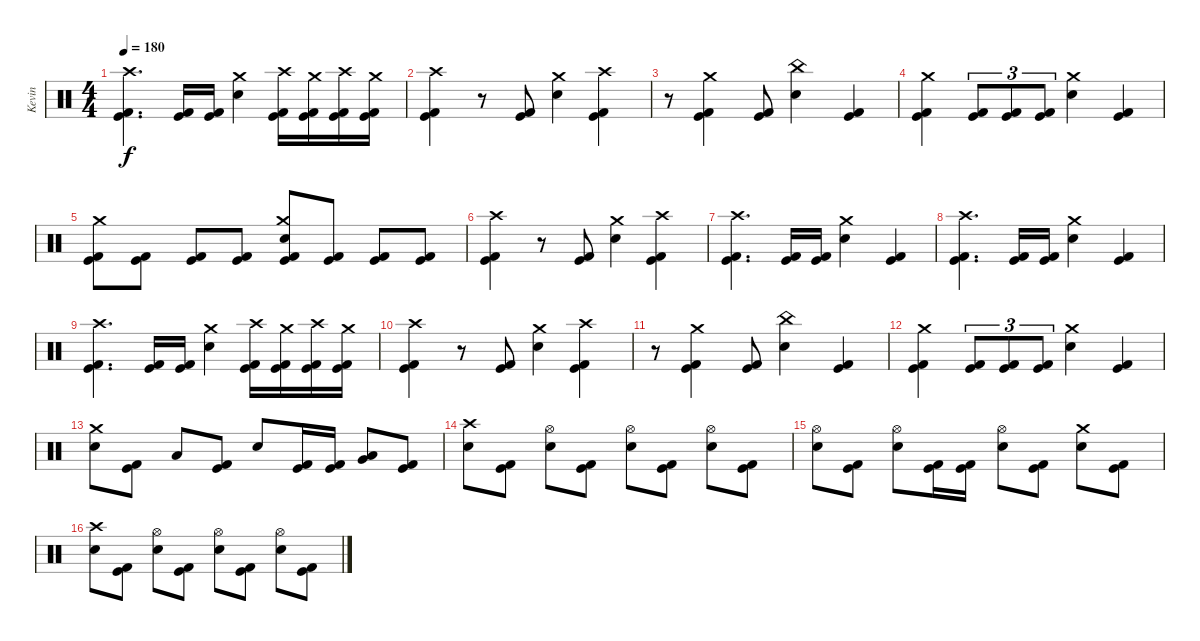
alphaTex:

\track ("Kevin" "Kevin") {instrument percussion}
\staff {score}
\articulation defaults
\ts (4 4)
\tempo 180
\clef neutral
\ks c
("Crash high (hit)" "Kick (hit)" "Kick (hit) 2").4{d dy f} ("Kick (hit)" "Kick (hit) 2").16 ("Kick (hit)" "Kick (hit) 2").16 ("Crash medium (hit)" "Electric Snare (hit)").4 ("Crash high (hit)" "Kick (hit)" "Kick (hit) 2").16 ("Crash medium (hit)" "Kick (hit)" "Kick (hit) 2").16 ("Crash high (hit)" "Kick (hit)" "Kick (hit) 2").16 ("Crash medium (hit)" "Kick (hit)" "Kick (hit) 2").16 |
("Crash high (hit)" "Kick (hit)" "Kick (hit) 2").4 r.8 ("Kick (hit)" "Kick (hit) 2").8 ("Crash medium (hit)" "Electric Snare (hit)").4 ("Crash high (hit)" "Kick (hit)" "Kick (hit) 2").4 |
r.8 ("Crash medium (hit)" "Kick (hit)" "Kick (hit) 2").4 ("Kick (hit)" "Kick (hit) 2").8 ("China (hit)" "Electric Snare (hit)").4 ("Kick (hit)" "Kick (hit) 2").4 |
("Crash medium (hit)" "Kick (hit)" "Kick (hit) 2").4 ("Kick (hit)" "Kick (hit) 2").8{tu (3 2)} ("Kick (hit)" "Kick (hit) 2").8{tu (3 2)} ("Kick (hit)" "Kick (hit) 2").8{tu (3 2)} ("Crash medium (hit)" "Electric Snare (hit)").4 ("Kick (hit)" "Kick (hit) 2").4 |
("Crash medium (hit)" "Kick (hit)" "Kick (hit) 2").8 ("Kick (hit)" "Kick (hit) 2").8 ("Kick (hit)" "Kick (hit) 2").8 ("Kick (hit)" "Kick (hit) 2").8 ("Crash medium (hit)" "Electric Snare (hit)" "Kick (hit)" "Kick (hit) 2").8 ("Kick (hit)" "Kick (hit) 2").8 ("Kick (hit)" "Kick (hit) 2").8 ("Kick (hit)" "Kick (hit) 2").8 |
("Crash high (hit)" "Kick (hit)" "Kick (hit) 2").4 r.8 ("Kick (hit)" "Kick (hit) 2").8 ("Crash medium (hit)" "Electric Snare (hit)").4 ("Crash high (hit)" "Kick (hit)" "Kick (hit) 2").4 |
("Crash high (hit)" "Kick (hit)" "Kick (hit) 2").4{d} ("Kick (hit)" "Kick (hit) 2").16 ("Kick (hit)" "Kick (hit) 2").16 ("Crash medium (hit)" "Electric Snare (hit)").4 ("Kick (hit)" "Kick (hit) 2").4 |
("Crash high (hit)" "Kick (hit)" "Kick (hit) 2").4{d} ("Kick (hit)" "Kick (hit) 2").16 ("Kick (hit)" "Kick (hit) 2").16 ("Crash medium (hit)" "Electric Snare (hit)").4 ("Kick (hit)" "Kick (hit) 2").4 |
("Crash high (hit)" "Kick (hit)" "Kick (hit) 2").4{d} ("Kick (hit)" "Kick (hit) 2").16 ("Kick (hit)" "Kick (hit) 2").16 ("Crash medium (hit)" "Electric Snare (hit)").4 ("Crash high (hit)" "Kick (hit)" "Kick (hit) 2").16 ("Crash medium (hit)" "Kick (hit)" "Kick (hit) 2").16 ("Crash high (hit)" "Kick (hit)" "Kick (hit) 2").16 ("Crash medium (hit)" "Kick (hit)" "Kick (hit) 2").16 |
("Crash high (hit)" "Kick (hit)" "Kick (hit) 2").4 r.8 ("Kick (hit)" "Kick (hit) 2").8 ("Crash medium (hit)" "Electric Snare (hit)").4 ("Crash high (hit)" "Kick (hit)" "Kick (hit) 2").4 |
r.8 ("Crash medium (hit)" "Kick (hit)" "Kick (hit) 2").4 ("Kick (hit)" "Kick (hit) 2").8 ("China (hit)" "Electric Snare (hit)").4 ("Kick (hit)" "Kick (hit) 2").4 |
("Crash medium (hit)" "Kick (hit)" "Kick (hit) 2").4 ("Kick (hit)" "Kick (hit) 2").8{tu (3 2)} ("Kick (hit)" "Kick (hit) 2").8{tu (3 2)} ("Kick (hit)" "Kick (hit) 2").8{tu (3 2)} ("Crash medium (hit)" "Electric Snare (hit)").4 ("Kick (hit)" "Kick (hit) 2").4 |
("Crash medium (hit)" "Electric Snare (hit)").8 ("Kick (hit)" "Kick (hit) 2").8 "Low Tom (hit)".8 ("Kick (hit)" "Kick (hit) 2").8 "Electric Snare (hit)".8 ("Kick (hit)" "Kick (hit) 2").16 ("Kick (hit)" "Kick (hit) 2").16 ("Low Tom (hit)" "Very Low Tom (hit)").8 ("Kick (hit)" "Kick (hit) 2").8 |
("Crash high (hit)" "Electric Snare (hit)").8 ("Kick (hit)" "Kick (hit) 2").8 ("Hi-Hat (open)" "Electric Snare (hit)").8 ("Kick (hit)" "Kick (hit) 2").8 ("Hi-Hat (open)" "Electric Snare (hit)").8 ("Kick (hit)" "Kick (hit) 2").8 ("Hi-Hat (open)" "Electric Snare (hit)").8 ("Kick (hit)" "Kick (hit) 2").8 |
("Hi-Hat (open)" "Electric Snare (hit)").8 ("Kick (hit)" "Kick (hit) 2").8 ("Hi-Hat (open)" "Electric Snare (hit)").8 ("Kick (hit)" "Kick (hit) 2").16 ("Kick (hit)" "Kick (hit) 2").16 ("Hi-Hat (open)" "Electric Snare (hit)").8 ("Kick (hit)" "Kick (hit) 2").8 ("Crash medium (hit)" "Electric Snare (hit)").8 ("Kick (hit)" "Kick (hit) 2").8 |
("Crash high (hit)" "Electric Snare (hit)").8 ("Kick (hit)" "Kick (hit) 2").8 ("Hi-Hat (open)" "Electric Snare (hit)").8 ("Kick (hit)" "Kick (hit) 2").8 ("Hi-Hat (open)" "Electric Snare (hit)").8 ("Kick (hit)" "Kick (hit) 2").8 ("Hi-Hat (open)" "Electric Snare (hit)").8 ("Kick (hit)" "Kick (hit) 2").8
